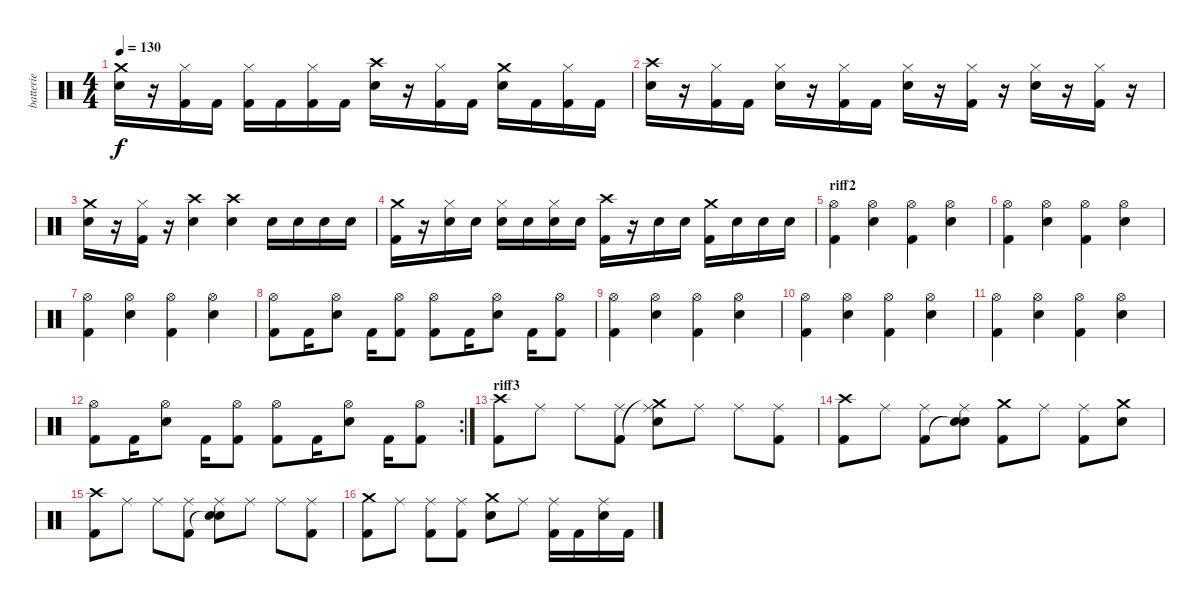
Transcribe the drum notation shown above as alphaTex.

\track ("batterie" "batterie") {instrument percussion}
\staff {score}
\articulation defaults
\ts (4 4)
\tempo 130
\clef neutral
\ks c
("Crash medium (hit)" "Snare (hit) 2").16{dy f} r.16 ("Kick (hit) 2" "Hi-Hat (closed)").16 "Kick (hit) 2".16 ("Kick (hit) 2" "Hi-Hat (closed)").16 "Kick (hit) 2".16 ("Kick (hit) 2" "Hi-Hat (closed)").16 "Kick (hit) 2".16 ("Crash high (hit)" "Snare (hit) 2").16 r.16 ("Kick (hit) 2" "Hi-Hat (closed)").16 "Kick (hit) 2".16 ("Crash medium (hit)" "Snare (hit) 2").16 "Kick (hit) 2".16 ("Kick (hit) 2" "Hi-Hat (closed)").16 "Kick (hit) 2".16 |
("Crash high (hit)" "Snare (hit) 2").16 r.16 ("Kick (hit) 2" "Hi-Hat (closed)").16 "Kick (hit) 2".16 ("Snare (hit) 2" "Hi-Hat (closed)").16 r.16 ("Kick (hit) 2" "Hi-Hat (closed)").16 "Kick (hit) 2".16 ("Snare (hit) 2" "Hi-Hat (closed)").16 r.16 ("Kick (hit) 2" "Hi-Hat (closed)").16 r.16 ("Snare (hit) 2" "Hi-Hat (closed)").16 r.16 ("Kick (hit) 2" "Hi-Hat (closed)").16 r.16 |
("Crash medium (hit)" "Snare (hit) 2").16 r.16 ("Kick (hit) 2" "Hi-Hat (closed)").16 r.16 ("Crash high (hit)" "Snare (hit) 2").4 ("Crash high (hit)" "Snare (hit) 2").4 "Snare (hit) 2".16 "Snare (hit) 2".16 "Snare (hit) 2".16 "Snare (hit) 2".16 |
("Crash medium (hit)" "Kick (hit) 2").16 r.16 ("Snare (hit) 2" "Hi-Hat (closed)").16 "Snare (hit) 2".16 ("Snare (hit) 2" "Hi-Hat (closed)").16 "Snare (hit) 2".16 ("Snare (hit) 2" "Hi-Hat (closed)").16 "Snare (hit) 2".16 ("Crash high (hit)" "Kick (hit) 2").16 r.16 "Snare (hit) 2".16 "Snare (hit) 2".16 ("Crash medium (hit)" "Kick (hit) 2").16 "Snare (hit) 2".16 "Snare (hit) 2".16 "Snare (hit) 2".16 |
\section ("" "riff2")
("Kick (hit) 2" "Hi-Hat (open)").4 ("Snare (hit) 2" "Hi-Hat (open)").4 ("Kick (hit) 2" "Hi-Hat (open)").4 ("Snare (hit) 2" "Hi-Hat (open)").4 |
("Kick (hit) 2" "Hi-Hat (open)").4 ("Snare (hit) 2" "Hi-Hat (open)").4 ("Kick (hit) 2" "Hi-Hat (open)").4 ("Snare (hit) 2" "Hi-Hat (open)").4 |
("Kick (hit) 2" "Hi-Hat (open)").4 ("Snare (hit) 2" "Hi-Hat (open)").4 ("Kick (hit) 2" "Hi-Hat (open)").4 ("Snare (hit) 2" "Hi-Hat (open)").4 |
("Kick (hit) 2" "Hi-Hat (open)").8 "Kick (hit) 2".16 ("Snare (hit) 2" "Hi-Hat (open)").8 "Kick (hit) 2".16 ("Kick (hit) 2" "Hi-Hat (open)").8 ("Kick (hit) 2" "Hi-Hat (open)").8 "Kick (hit) 2".16 ("Snare (hit) 2" "Hi-Hat (open)").8 "Kick (hit) 2".16 ("Kick (hit) 2" "Hi-Hat (open)").8 |
("Kick (hit) 2" "Hi-Hat (open)").4 ("Snare (hit) 2" "Hi-Hat (open)").4 ("Kick (hit) 2" "Hi-Hat (open)").4 ("Snare (hit) 2" "Hi-Hat (open)").4 |
("Kick (hit) 2" "Hi-Hat (open)").4 ("Snare (hit) 2" "Hi-Hat (open)").4 ("Kick (hit) 2" "Hi-Hat (open)").4 ("Snare (hit) 2" "Hi-Hat (open)").4 |
("Kick (hit) 2" "Hi-Hat (open)").4 ("Snare (hit) 2" "Hi-Hat (open)").4 ("Kick (hit) 2" "Hi-Hat (open)").4 ("Snare (hit) 2" "Hi-Hat (open)").4 |
\rc 2
("Kick (hit) 2" "Hi-Hat (open)").8 "Kick (hit) 2".16 ("Snare (hit) 2" "Hi-Hat (open)").8 "Kick (hit) 2".16 ("Kick (hit) 2" "Hi-Hat (open)").8 ("Kick (hit) 2" "Hi-Hat (open)").8 "Kick (hit) 2".16 ("Snare (hit) 2" "Hi-Hat (open)").8 "Kick (hit) 2".16 ("Kick (hit) 2" "Hi-Hat (open)").8 |
\section ("" "riff3")
("Crash high (hit)" "Kick (hit) 2").8 "Ride (middle)".8 "Ride (middle)".8 ("Kick (hit) 2" "Ride (middle)").8 ("Crash medium (hit)"{t} "Snare (hit) 2" "Ride (middle)").8 "Ride (middle)".8 "Ride (middle)".8 ("Kick (hit) 2" "Ride (middle)").8 |
("Crash high (hit)" "Kick (hit) 2").8 "Ride (middle)".8 ("Kick (hit) 2" "Ride (middle)").8 ("Snare (hit)"{t} "Snare (hit) 2" "Ride (middle)").8 ("Crash medium (hit)" "Kick (hit) 2").8 "Ride (middle)".8 ("Kick (hit) 2" "Ride (middle)").8 ("Crash medium (hit)" "Snare (hit) 2").8 |
("Crash high (hit)" "Kick (hit) 2").8 "Ride (middle)".8 "Ride (middle)".8 ("Kick (hit) 2" "Ride (middle)").8 ("Snare (hit)"{t} "Snare (hit) 2" "Ride (middle)").8 "Ride (middle)".8 "Ride (middle)".8 ("Kick (hit) 2" "Ride (middle)").8 |
("Crash medium (hit)" "Kick (hit) 2").8 "Ride (middle)".8 ("Kick (hit) 2" "Ride (middle)").8 ("Kick (hit) 2" "Ride (middle)").8 ("Crash medium (hit)" "Snare (hit) 2").8 "Ride (middle)".8 ("Kick (hit) 2" "Ride (middle)").16 "Kick (hit) 2".16 ("Snare (hit) 2" "Ride (middle)").16 "Kick (hit) 2".16
